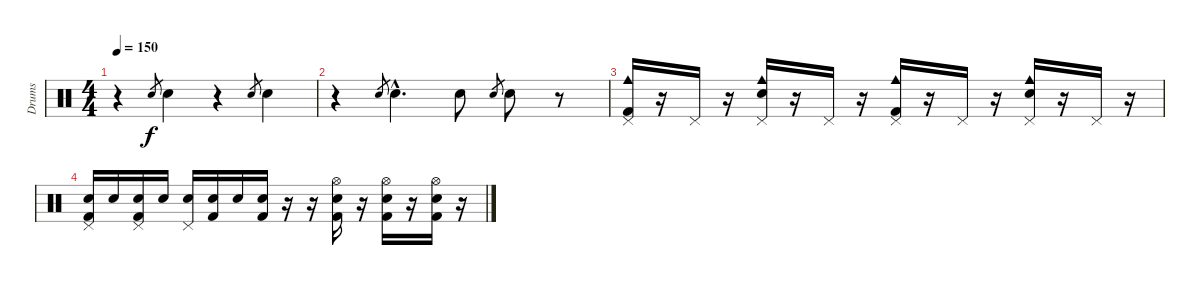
\track ("Drums" "Drums") {instrument percussion}
\staff {score}
\articulation defaults
\ts (4 4)
\tempo 150
\clef neutral
\ks c
r.4{dy f} "Electric Snare (hit)".8{gr} "Electric Snare (hit)".4 r.4 "Electric Snare (hit)".8{gr} "Electric Snare (hit)".4 |
r.4 "Electric Snare (hit)".8{gr} "Electric Snare (hit)"{hac}.4{d} "Electric Snare (hit)".8 "Electric Snare (hit)".8{gr} "Electric Snare (hit)".8 r.8 |
("Pedal Hi-Hat (hit)" "Cowbell medium (hit)" "Kick (hit) 2").16 r.16 "Pedal Hi-Hat (hit)".16 r.16 ("Pedal Hi-Hat (hit)" "Cowbell medium (hit)" "Electric Snare (hit)").16 r.16 "Pedal Hi-Hat (hit)".16 r.16 ("Pedal Hi-Hat (hit)" "Cowbell medium (hit)" "Kick (hit) 2").16 r.16 "Pedal Hi-Hat (hit)".16 r.16 ("Pedal Hi-Hat (hit)" "Electric Snare (hit)" "Cowbell medium (hit)").16 r.16 "Pedal Hi-Hat (hit)".16 r.16 |
("Pedal Hi-Hat (hit)" "Electric Snare (hit)" "Kick (hit) 2").16 "Electric Snare (hit)".16 ("Pedal Hi-Hat (hit)" "Electric Snare (hit)" "Kick (hit) 2").16 "Electric Snare (hit)".16 ("Pedal Hi-Hat (hit)" "Electric Snare (hit)").16 ("Electric Snare (hit)" "Kick (hit) 2").16 "Electric Snare (hit)".16 ("Electric Snare (hit)" "Kick (hit) 2").16 r.16 r.16 ("Hi-Hat (open)" "Electric Snare (hit)" "Kick (hit) 2").16 r.16 ("Hi-Hat (open)" "Electric Snare (hit)" "Kick (hit) 2").16 r.16 ("Hi-Hat (open)" "Electric Snare (hit)" "Kick (hit) 2").16 r.16
